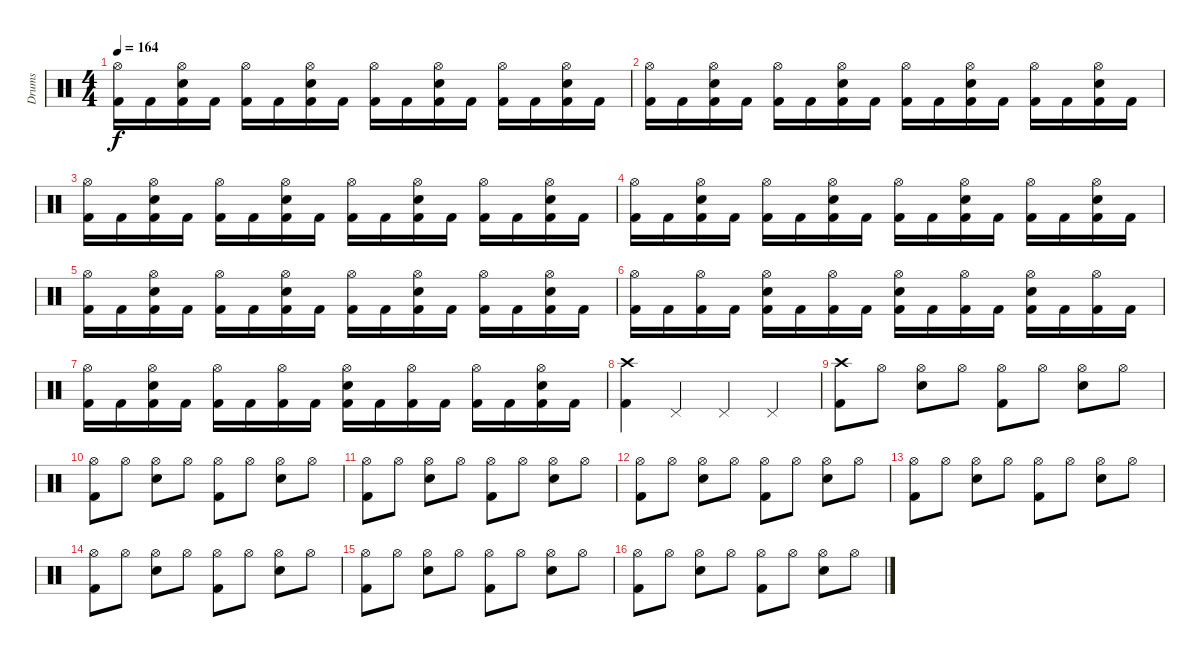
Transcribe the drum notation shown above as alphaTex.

\track ("Drums" "Drums") {instrument percussion}
\staff {score}
\articulation defaults
\ts (4 4)
\tempo 164
\clef neutral
\ks c
("Hi-Hat (open)" "Kick (hit) 2").16{dy f} "Kick (hit) 2".16 ("Hi-Hat (open)" "Kick (hit) 2" "Snare (hit) 2").16 "Kick (hit) 2".16 ("Hi-Hat (open)" "Kick (hit) 2").16 "Kick (hit) 2".16 ("Hi-Hat (open)" "Kick (hit) 2" "Snare (hit) 2").16 "Kick (hit) 2".16 ("Hi-Hat (open)" "Kick (hit) 2").16 "Kick (hit) 2".16 ("Hi-Hat (open)" "Kick (hit) 2" "Snare (hit) 2").16 "Kick (hit) 2".16 ("Hi-Hat (open)" "Kick (hit) 2").16 "Kick (hit) 2".16 ("Hi-Hat (open)" "Kick (hit) 2" "Snare (hit) 2").16 "Kick (hit) 2".16 |
("Hi-Hat (open)" "Kick (hit) 2").16 "Kick (hit) 2".16 ("Hi-Hat (open)" "Kick (hit) 2" "Snare (hit) 2").16 "Kick (hit) 2".16 ("Hi-Hat (open)" "Kick (hit) 2").16 "Kick (hit) 2".16 ("Hi-Hat (open)" "Kick (hit) 2" "Snare (hit) 2").16 "Kick (hit) 2".16 ("Hi-Hat (open)" "Kick (hit) 2").16 "Kick (hit) 2".16 ("Hi-Hat (open)" "Kick (hit) 2" "Snare (hit) 2").16 "Kick (hit) 2".16 ("Hi-Hat (open)" "Kick (hit) 2").16 "Kick (hit) 2".16 ("Hi-Hat (open)" "Kick (hit) 2" "Snare (hit) 2").16 "Kick (hit) 2".16 |
("Hi-Hat (open)" "Kick (hit) 2").16 "Kick (hit) 2".16 ("Hi-Hat (open)" "Kick (hit) 2" "Snare (hit) 2").16 "Kick (hit) 2".16 ("Hi-Hat (open)" "Kick (hit) 2").16 "Kick (hit) 2".16 ("Hi-Hat (open)" "Kick (hit) 2" "Snare (hit) 2").16 "Kick (hit) 2".16 ("Hi-Hat (open)" "Kick (hit) 2").16 "Kick (hit) 2".16 ("Hi-Hat (open)" "Kick (hit) 2" "Snare (hit) 2").16 "Kick (hit) 2".16 ("Hi-Hat (open)" "Kick (hit) 2").16 "Kick (hit) 2".16 ("Hi-Hat (open)" "Kick (hit) 2" "Snare (hit) 2").16 "Kick (hit) 2".16 |
("Hi-Hat (open)" "Kick (hit) 2").16 "Kick (hit) 2".16 ("Hi-Hat (open)" "Kick (hit) 2" "Snare (hit) 2").16 "Kick (hit) 2".16 ("Hi-Hat (open)" "Kick (hit) 2").16 "Kick (hit) 2".16 ("Hi-Hat (open)" "Kick (hit) 2" "Snare (hit) 2").16 "Kick (hit) 2".16 ("Hi-Hat (open)" "Kick (hit) 2").16 "Kick (hit) 2".16 ("Hi-Hat (open)" "Kick (hit) 2" "Snare (hit) 2").16 "Kick (hit) 2".16 ("Hi-Hat (open)" "Kick (hit) 2").16 "Kick (hit) 2".16 ("Hi-Hat (open)" "Kick (hit) 2" "Snare (hit) 2").16 "Kick (hit) 2".16 |
("Hi-Hat (open)" "Kick (hit) 2").16 "Kick (hit) 2".16 ("Hi-Hat (open)" "Kick (hit) 2" "Snare (hit) 2").16 "Kick (hit) 2".16 ("Hi-Hat (open)" "Kick (hit) 2").16 "Kick (hit) 2".16 ("Hi-Hat (open)" "Kick (hit) 2" "Snare (hit) 2").16 "Kick (hit) 2".16 ("Hi-Hat (open)" "Kick (hit) 2").16 "Kick (hit) 2".16 ("Hi-Hat (open)" "Kick (hit) 2" "Snare (hit) 2").16 "Kick (hit) 2".16 ("Hi-Hat (open)" "Kick (hit) 2").16 "Kick (hit) 2".16 ("Hi-Hat (open)" "Kick (hit) 2" "Snare (hit) 2").16 "Kick (hit) 2".16 |
("Hi-Hat (open)" "Kick (hit) 2").16 "Kick (hit) 2".16 ("Hi-Hat (open)" "Kick (hit) 2").16 "Kick (hit) 2".16 ("Hi-Hat (open)" "Kick (hit) 2" "Snare (hit) 2").16 "Kick (hit) 2".16 ("Hi-Hat (open)" "Kick (hit) 2").16 "Kick (hit) 2".16 ("Hi-Hat (open)" "Kick (hit) 2" "Snare (hit) 2").16 "Kick (hit) 2".16 ("Hi-Hat (open)" "Kick (hit) 2").16 "Kick (hit) 2".16 ("Hi-Hat (open)" "Kick (hit) 2" "Snare (hit) 2").16 "Kick (hit) 2".16 ("Hi-Hat (open)" "Kick (hit) 2").16 "Kick (hit) 2".16 |
("Hi-Hat (open)" "Kick (hit) 2").16 "Kick (hit) 2".16 ("Hi-Hat (open)" "Kick (hit) 2" "Snare (hit) 2").16 "Kick (hit) 2".16 ("Hi-Hat (open)" "Kick (hit) 2").16 "Kick (hit) 2".16 ("Hi-Hat (open)" "Kick (hit) 2").16 "Kick (hit) 2".16 ("Hi-Hat (open)" "Kick (hit) 2" "Snare (hit) 2").16 "Kick (hit) 2".16 ("Hi-Hat (open)" "Kick (hit) 2").16 "Kick (hit) 2".16 ("Hi-Hat (open)" "Kick (hit) 2").16 "Kick (hit) 2".16 ("Hi-Hat (open)" "Kick (hit) 2" "Snare (hit) 2").16 "Kick (hit) 2".16 |
("Crash high (hit)" "Kick (hit) 2").4 "Pedal Hi-Hat (hit)".4 "Pedal Hi-Hat (hit)".4 "Pedal Hi-Hat (hit)".4 |
("Crash high (hit)" "Kick (hit) 2").8 "Hi-Hat (open)".8 ("Hi-Hat (open)" "Snare (hit) 2").8 "Hi-Hat (open)".8 ("Hi-Hat (open)" "Kick (hit) 2").8 "Hi-Hat (open)".8 ("Hi-Hat (open)" "Snare (hit) 2").8 "Hi-Hat (open)".8 |
("Hi-Hat (open)" "Kick (hit) 2").8 "Hi-Hat (open)".8 ("Hi-Hat (open)" "Snare (hit) 2").8 "Hi-Hat (open)".8 ("Hi-Hat (open)" "Kick (hit) 2").8 "Hi-Hat (open)".8 ("Hi-Hat (open)" "Snare (hit) 2").8 "Hi-Hat (open)".8 |
("Hi-Hat (open)" "Kick (hit) 2").8 "Hi-Hat (open)".8 ("Hi-Hat (open)" "Snare (hit) 2").8 "Hi-Hat (open)".8 ("Hi-Hat (open)" "Kick (hit) 2").8 "Hi-Hat (open)".8 ("Hi-Hat (open)" "Snare (hit) 2").8 "Hi-Hat (open)".8 |
("Hi-Hat (open)" "Kick (hit) 2").8 "Hi-Hat (open)".8 ("Hi-Hat (open)" "Snare (hit) 2").8 "Hi-Hat (open)".8 ("Hi-Hat (open)" "Kick (hit) 2").8 "Hi-Hat (open)".8 ("Hi-Hat (open)" "Snare (hit) 2").8 "Hi-Hat (open)".8 |
("Hi-Hat (open)" "Kick (hit) 2").8 "Hi-Hat (open)".8 ("Hi-Hat (open)" "Snare (hit) 2").8 "Hi-Hat (open)".8 ("Hi-Hat (open)" "Kick (hit) 2").8 "Hi-Hat (open)".8 ("Hi-Hat (open)" "Snare (hit) 2").8 "Hi-Hat (open)".8 |
("Hi-Hat (open)" "Kick (hit) 2").8 "Hi-Hat (open)".8 ("Hi-Hat (open)" "Snare (hit) 2").8 "Hi-Hat (open)".8 ("Hi-Hat (open)" "Kick (hit) 2").8 "Hi-Hat (open)".8 ("Hi-Hat (open)" "Snare (hit) 2").8 "Hi-Hat (open)".8 |
("Hi-Hat (open)" "Kick (hit) 2").8 "Hi-Hat (open)".8 ("Hi-Hat (open)" "Snare (hit) 2").8 "Hi-Hat (open)".8 ("Hi-Hat (open)" "Kick (hit) 2").8 "Hi-Hat (open)".8 ("Hi-Hat (open)" "Snare (hit) 2").8 "Hi-Hat (open)".8 |
("Hi-Hat (open)" "Kick (hit) 2").8 "Hi-Hat (open)".8 ("Hi-Hat (open)" "Snare (hit) 2").8 "Hi-Hat (open)".8 ("Hi-Hat (open)" "Kick (hit) 2").8 "Hi-Hat (open)".8 ("Hi-Hat (open)" "Snare (hit) 2").8 "Hi-Hat (open)".8
